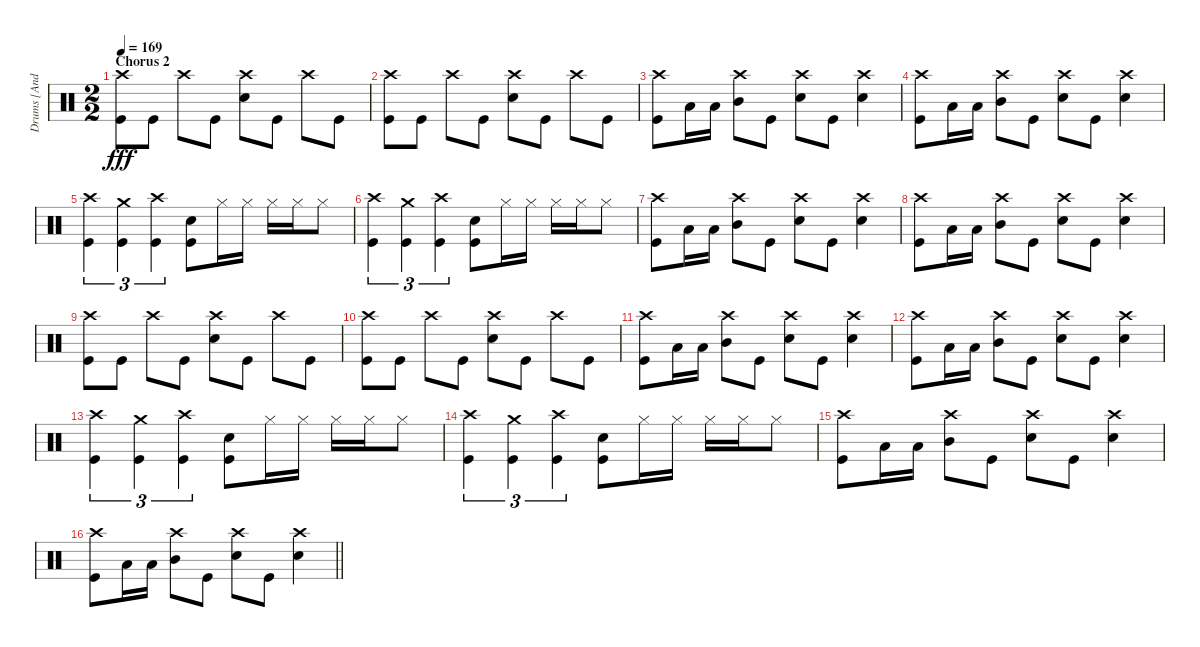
\track ("Drums [Andrew Forsman]" "Drums [And") {instrument percussion}
\staff {score}
\articulation defaults
\ts (2 2)
\section ("" "Chorus 2")
\tempo 169
\clef neutral
\ks c
("Crash high (hit)" "Kick (hit)").8{dy fff} "Kick (hit)".8 "Crash high (hit)".8 "Kick (hit)".8 ("Crash high (hit)" "Snare (hit) 2").8 "Kick (hit)".8 "Crash high (hit)".8 "Kick (hit)".8 |
("Crash high (hit)" "Kick (hit)").8 "Kick (hit)".8 "Crash high (hit)".8 "Kick (hit)".8 ("Crash high (hit)" "Snare (hit) 2").8 "Kick (hit)".8 "Crash high (hit)".8 "Kick (hit)".8 |
("Kick (hit)" "Crash high (hit)").8 "Low Tom (hit)".16 "Low Tom (hit)".16 ("Mid Tom (hit)" "Crash high (hit)").8 "Kick (hit)".8 ("Snare (hit) 2" "Crash high (hit)").8 "Kick (hit)".8 ("Snare (hit) 2" "Crash high (hit)").4 |
("Kick (hit)" "Crash high (hit)").8 "Low Tom (hit)".16 "Low Tom (hit)".16 ("Mid Tom (hit)" "Crash high (hit)").8 "Kick (hit)".8 ("Snare (hit) 2" "Crash high (hit)").8 "Kick (hit)".8 ("Snare (hit) 2" "Crash high (hit)").4 |
("Kick (hit)" "Crash high (hit)").4{tu (3 2)} ("Kick (hit)" "Crash medium (hit)").4{tu (3 2)} ("Kick (hit)" "Crash high (hit)").4{tu (3 2)} ("Snare (hit) 2" "Kick (hit)").8 "Hi-Hat (closed)".16 "Hi-Hat (closed)".16 "Hi-Hat (closed)".16 "Hi-Hat (closed)".16 "Hi-Hat (closed)".8 |
("Kick (hit)" "Crash high (hit)").4{tu (3 2)} ("Kick (hit)" "Crash medium (hit)").4{tu (3 2)} ("Kick (hit)" "Crash high (hit)").4{tu (3 2)} ("Snare (hit) 2" "Kick (hit)").8 "Hi-Hat (closed)".16 "Hi-Hat (closed)".16 "Hi-Hat (closed)".16 "Hi-Hat (closed)".16 "Hi-Hat (closed)".8 |
("Kick (hit)" "Crash high (hit)").8 "Low Tom (hit)".16 "Low Tom (hit)".16 ("Mid Tom (hit)" "Crash high (hit)").8 "Kick (hit)".8 ("Snare (hit) 2" "Crash high (hit)").8 "Kick (hit)".8 ("Snare (hit) 2" "Crash high (hit)").4 |
("Kick (hit)" "Crash high (hit)").8 "Low Tom (hit)".16 "Low Tom (hit)".16 ("Mid Tom (hit)" "Crash high (hit)").8 "Kick (hit)".8 ("Snare (hit) 2" "Crash high (hit)").8 "Kick (hit)".8 ("Snare (hit) 2" "Crash high (hit)").4 |
("Crash high (hit)" "Kick (hit)").8 "Kick (hit)".8 "Crash high (hit)".8 "Kick (hit)".8 ("Crash high (hit)" "Snare (hit) 2").8 "Kick (hit)".8 "Crash high (hit)".8 "Kick (hit)".8 |
("Crash high (hit)" "Kick (hit)").8 "Kick (hit)".8 "Crash high (hit)".8 "Kick (hit)".8 ("Crash high (hit)" "Snare (hit) 2").8 "Kick (hit)".8 "Crash high (hit)".8 "Kick (hit)".8 |
("Kick (hit)" "Crash high (hit)").8 "Low Tom (hit)".16 "Low Tom (hit)".16 ("Mid Tom (hit)" "Crash high (hit)").8 "Kick (hit)".8 ("Snare (hit) 2" "Crash high (hit)").8 "Kick (hit)".8 ("Snare (hit) 2" "Crash high (hit)").4 |
("Kick (hit)" "Crash high (hit)").8 "Low Tom (hit)".16 "Low Tom (hit)".16 ("Mid Tom (hit)" "Crash high (hit)").8 "Kick (hit)".8 ("Snare (hit) 2" "Crash high (hit)").8 "Kick (hit)".8 ("Snare (hit) 2" "Crash high (hit)").4 |
("Kick (hit)" "Crash high (hit)").4{tu (3 2)} ("Kick (hit)" "Crash medium (hit)").4{tu (3 2)} ("Kick (hit)" "Crash high (hit)").4{tu (3 2)} ("Snare (hit) 2" "Kick (hit)").8 "Hi-Hat (closed)".16 "Hi-Hat (closed)".16 "Hi-Hat (closed)".16 "Hi-Hat (closed)".16 "Hi-Hat (closed)".8 |
("Kick (hit)" "Crash high (hit)").4{tu (3 2)} ("Kick (hit)" "Crash medium (hit)").4{tu (3 2)} ("Kick (hit)" "Crash high (hit)").4{tu (3 2)} ("Snare (hit) 2" "Kick (hit)").8 "Hi-Hat (closed)".16 "Hi-Hat (closed)".16 "Hi-Hat (closed)".16 "Hi-Hat (closed)".16 "Hi-Hat (closed)".8 |
("Kick (hit)" "Crash high (hit)").8 "Low Tom (hit)".16 "Low Tom (hit)".16 ("Mid Tom (hit)" "Crash high (hit)").8 "Kick (hit)".8 ("Snare (hit) 2" "Crash high (hit)").8 "Kick (hit)".8 ("Snare (hit) 2" "Crash high (hit)").4 |
\barLineRight lightlight
("Kick (hit)" "Crash high (hit)").8 "Low Tom (hit)".16 "Low Tom (hit)".16 ("Mid Tom (hit)" "Crash high (hit)").8 "Kick (hit)".8 ("Snare (hit) 2" "Crash high (hit)").8 "Kick (hit)".8 ("Snare (hit) 2" "Crash high (hit)").4
